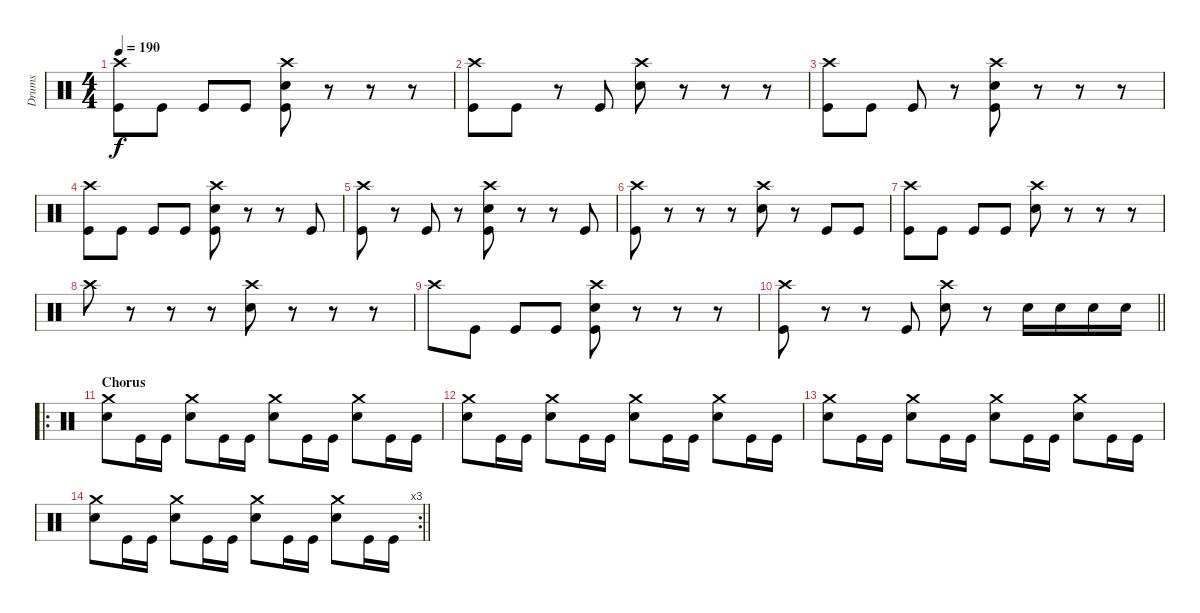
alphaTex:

\track ("Drums" "Drums") {instrument percussion}
\staff {score}
\articulation defaults
\ts (4 4)
\tempo 190
\clef neutral
\ks c
("Crash high (hit)" "Kick (hit)").8{dy f} "Kick (hit)".8 "Kick (hit)".8 "Kick (hit)".8 ("Crash high (hit)" "Snare (hit) 2" "Kick (hit)").8 r.8 r.8 r.8 |
("Crash high (hit)" "Kick (hit)").8 "Kick (hit)".8 r.8 "Kick (hit)".8 ("Crash high (hit)" "Snare (hit) 2").8 r.8 r.8 r.8 |
("Crash high (hit)" "Kick (hit)").8 "Kick (hit)".8 "Kick (hit)".8 r.8 ("Crash high (hit)" "Snare (hit) 2" "Kick (hit)").8 r.8 r.8 r.8 |
("Crash high (hit)" "Kick (hit)").8 "Kick (hit)".8 "Kick (hit)".8 "Kick (hit)".8 ("Crash high (hit)" "Snare (hit) 2" "Kick (hit)").8 r.8 r.8 "Kick (hit)".8 |
("Crash high (hit)" "Kick (hit)").8 r.8 "Kick (hit)".8 r.8 ("Crash high (hit)" "Snare (hit) 2" "Kick (hit)").8 r.8 r.8 "Kick (hit)".8 |
("Crash high (hit)" "Kick (hit)").8 r.8 r.8 r.8 ("Crash high (hit)" "Snare (hit) 2").8 r.8 "Kick (hit)".8 "Kick (hit)".8 |
("Crash high (hit)" "Kick (hit)").8 "Kick (hit)".8 "Kick (hit)".8 "Kick (hit)".8 ("Crash high (hit)" "Snare (hit) 2").8 r.8 r.8 r.8 |
"Crash high (hit)".8 r.8 r.8 r.8 ("Crash high (hit)" "Snare (hit) 2").8 r.8 r.8 r.8 |
"Crash high (hit)".8 "Kick (hit)".8 "Kick (hit)".8 "Kick (hit)".8 ("Crash high (hit)" "Snare (hit) 2" "Kick (hit)").8 r.8 r.8 r.8 |
\barLineRight lightlight
("Crash high (hit)" "Kick (hit)").8 r.8 r.8 "Kick (hit)".8 ("Crash high (hit)" "Snare (hit) 2").8 r.8 "Snare (hit) 2".16 "Snare (hit) 2".16 "Snare (hit) 2".16 "Snare (hit) 2".16 |
\ro
\section ("" "Chorus")
("Crash medium (hit)" "Snare (hit) 2").8 "Kick (hit)".16 "Kick (hit)".16 ("Crash medium (hit)" "Snare (hit) 2").8 "Kick (hit)".16 "Kick (hit)".16 ("Crash medium (hit)" "Snare (hit) 2").8 "Kick (hit)".16 "Kick (hit)".16 ("Crash medium (hit)" "Snare (hit) 2").8 "Kick (hit)".16 "Kick (hit)".16 |
("Crash medium (hit)" "Snare (hit) 2").8 "Kick (hit)".16 "Kick (hit)".16 ("Crash medium (hit)" "Snare (hit) 2").8 "Kick (hit)".16 "Kick (hit)".16 ("Crash medium (hit)" "Snare (hit) 2").8 "Kick (hit)".16 "Kick (hit)".16 ("Crash medium (hit)" "Snare (hit) 2").8 "Kick (hit)".16 "Kick (hit)".16 |
("Crash medium (hit)" "Snare (hit) 2").8 "Kick (hit)".16 "Kick (hit)".16 ("Crash medium (hit)" "Snare (hit) 2").8 "Kick (hit)".16 "Kick (hit)".16 ("Crash medium (hit)" "Snare (hit) 2").8 "Kick (hit)".16 "Kick (hit)".16 ("Crash medium (hit)" "Snare (hit) 2").8 "Kick (hit)".16 "Kick (hit)".16 |
\rc 3
\barLineRight lightlight
("Crash medium (hit)" "Snare (hit) 2").8 "Kick (hit)".16 "Kick (hit)".16 ("Crash medium (hit)" "Snare (hit) 2").8 "Kick (hit)".16 "Kick (hit)".16 ("Crash medium (hit)" "Snare (hit) 2").8 "Kick (hit)".16 "Kick (hit)".16 ("Crash medium (hit)" "Snare (hit) 2").8 "Kick (hit)".16 "Kick (hit)".16
